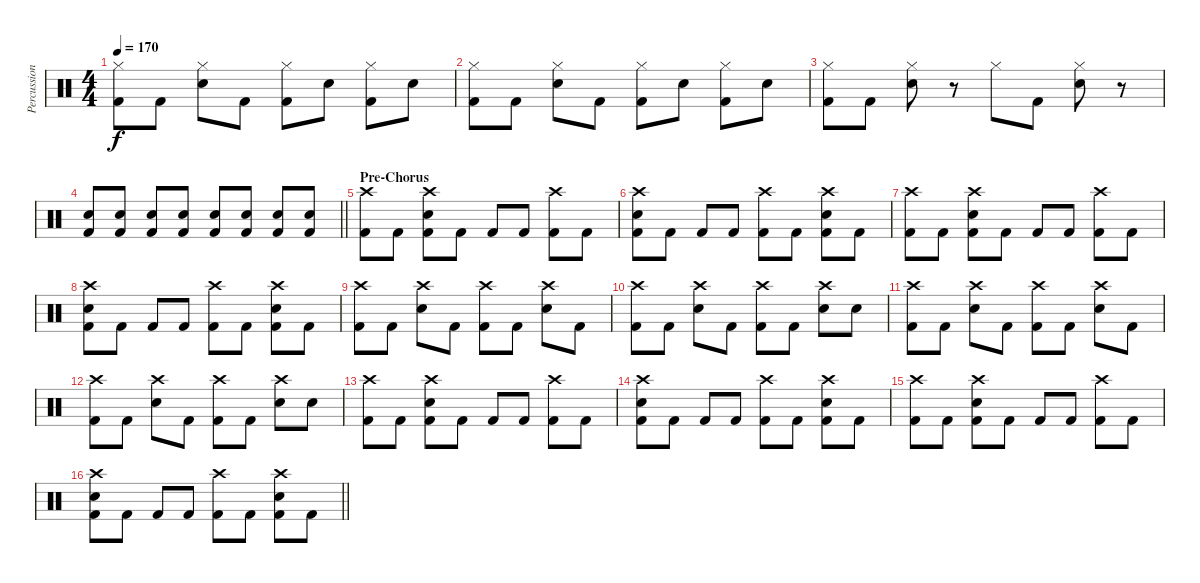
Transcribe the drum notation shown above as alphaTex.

\track ("Percussion" "Percussion") {instrument percussion}
\staff {score}
\articulation defaults
\ts (4 4)
\tempo 170
\clef neutral
\ks c
("Hi-Hat (closed)" "Kick (hit) 2").8{dy f} "Kick (hit) 2".8 ("Hi-Hat (closed)" "Electric Snare (hit)").8 "Kick (hit) 2".8 ("Hi-Hat (closed)" "Kick (hit) 2").8 "Electric Snare (hit)".8 ("Hi-Hat (closed)" "Kick (hit) 2").8 "Electric Snare (hit)".8 |
("Hi-Hat (closed)" "Kick (hit) 2").8 "Kick (hit) 2".8 ("Hi-Hat (closed)" "Electric Snare (hit)").8 "Kick (hit) 2".8 ("Hi-Hat (closed)" "Kick (hit) 2").8 "Electric Snare (hit)".8 ("Hi-Hat (closed)" "Kick (hit) 2").8 "Electric Snare (hit)".8 |
("Hi-Hat (closed)" "Kick (hit) 2").8 "Kick (hit) 2".8 ("Hi-Hat (closed)" "Electric Snare (hit)").8 r.8 "Hi-Hat (closed)".8 "Kick (hit) 2".8 ("Hi-Hat (closed)" "Electric Snare (hit)").8 r.8 |
\barLineRight lightlight
("Electric Snare (hit)" "Kick (hit) 2").8{volume 5} ("Electric Snare (hit)" "Kick (hit) 2").8{volume 16} ("Electric Snare (hit)" "Kick (hit) 2").8 ("Electric Snare (hit)" "Kick (hit) 2").8 ("Electric Snare (hit)" "Kick (hit) 2").8 ("Electric Snare (hit)" "Kick (hit) 2").8 ("Electric Snare (hit)" "Kick (hit) 2").8 ("Electric Snare (hit)" "Kick (hit) 2").8 |
\section ("" "Pre-Chorus")
("Crash high (hit)" "Kick (hit) 2").8 "Kick (hit) 2".8 ("Crash high (hit)" "Electric Snare (hit)" "Kick (hit) 2").8 "Kick (hit) 2".8 "Kick (hit) 2".8 "Kick (hit) 2".8 ("Crash high (hit)" "Kick (hit) 2").8 "Kick (hit) 2".8 |
("Crash high (hit)" "Electric Snare (hit)" "Kick (hit) 2").8 "Kick (hit) 2".8 "Kick (hit) 2".8 "Kick (hit) 2".8 ("Crash high (hit)" "Kick (hit) 2").8 "Kick (hit) 2".8 ("Crash high (hit)" "Electric Snare (hit)" "Kick (hit) 2").8 "Kick (hit) 2".8 |
("Crash high (hit)" "Kick (hit) 2").8 "Kick (hit) 2".8 ("Crash high (hit)" "Electric Snare (hit)" "Kick (hit) 2").8 "Kick (hit) 2".8 "Kick (hit) 2".8 "Kick (hit) 2".8 ("Crash high (hit)" "Kick (hit) 2").8 "Kick (hit) 2".8 |
("Crash high (hit)" "Electric Snare (hit)" "Kick (hit) 2").8 "Kick (hit) 2".8 "Kick (hit) 2".8 "Kick (hit) 2".8 ("Crash high (hit)" "Kick (hit) 2").8 "Kick (hit) 2".8 ("Crash high (hit)" "Electric Snare (hit)" "Kick (hit) 2").8 "Kick (hit) 2".8 |
("Crash high (hit)" "Kick (hit) 2").8 "Kick (hit) 2".8 ("Crash high (hit)" "Electric Snare (hit)").8 "Kick (hit) 2".8 ("Crash high (hit)" "Kick (hit) 2").8 "Kick (hit) 2".8 ("Crash high (hit)" "Electric Snare (hit)").8 "Kick (hit) 2".8 |
("Crash high (hit)" "Kick (hit) 2").8 "Kick (hit) 2".8 ("Crash high (hit)" "Electric Snare (hit)").8 "Kick (hit) 2".8 ("Crash high (hit)" "Kick (hit) 2").8 "Kick (hit) 2".8 ("Crash high (hit)" "Electric Snare (hit)").8 "Electric Snare (hit)".8 |
("Crash high (hit)" "Kick (hit) 2").8 "Kick (hit) 2".8 ("Crash high (hit)" "Electric Snare (hit)").8 "Kick (hit) 2".8 ("Crash high (hit)" "Kick (hit) 2").8 "Kick (hit) 2".8 ("Crash high (hit)" "Electric Snare (hit)").8 "Kick (hit) 2".8 |
("Crash high (hit)" "Kick (hit) 2").8 "Kick (hit) 2".8 ("Crash high (hit)" "Electric Snare (hit)").8 "Kick (hit) 2".8 ("Crash high (hit)" "Kick (hit) 2").8 "Kick (hit) 2".8 ("Crash high (hit)" "Electric Snare (hit)").8 "Electric Snare (hit)".8 |
("Crash high (hit)" "Kick (hit) 2").8 "Kick (hit) 2".8 ("Crash high (hit)" "Electric Snare (hit)" "Kick (hit) 2").8 "Kick (hit) 2".8 "Kick (hit) 2".8 "Kick (hit) 2".8 ("Crash high (hit)" "Kick (hit) 2").8 "Kick (hit) 2".8 |
("Crash high (hit)" "Electric Snare (hit)" "Kick (hit) 2").8 "Kick (hit) 2".8 "Kick (hit) 2".8 "Kick (hit) 2".8 ("Crash high (hit)" "Kick (hit) 2").8 "Kick (hit) 2".8 ("Crash high (hit)" "Electric Snare (hit)" "Kick (hit) 2").8 "Kick (hit) 2".8 |
("Crash high (hit)" "Kick (hit) 2").8 "Kick (hit) 2".8 ("Crash high (hit)" "Electric Snare (hit)" "Kick (hit) 2").8 "Kick (hit) 2".8 "Kick (hit) 2".8 "Kick (hit) 2".8 ("Crash high (hit)" "Kick (hit) 2").8 "Kick (hit) 2".8 |
\barLineRight lightlight
("Crash high (hit)" "Electric Snare (hit)" "Kick (hit) 2").8 "Kick (hit) 2".8 "Kick (hit) 2".8 "Kick (hit) 2".8 ("Crash high (hit)" "Kick (hit) 2").8 "Kick (hit) 2".8 ("Crash high (hit)" "Electric Snare (hit)" "Kick (hit) 2").8 "Kick (hit) 2".8
